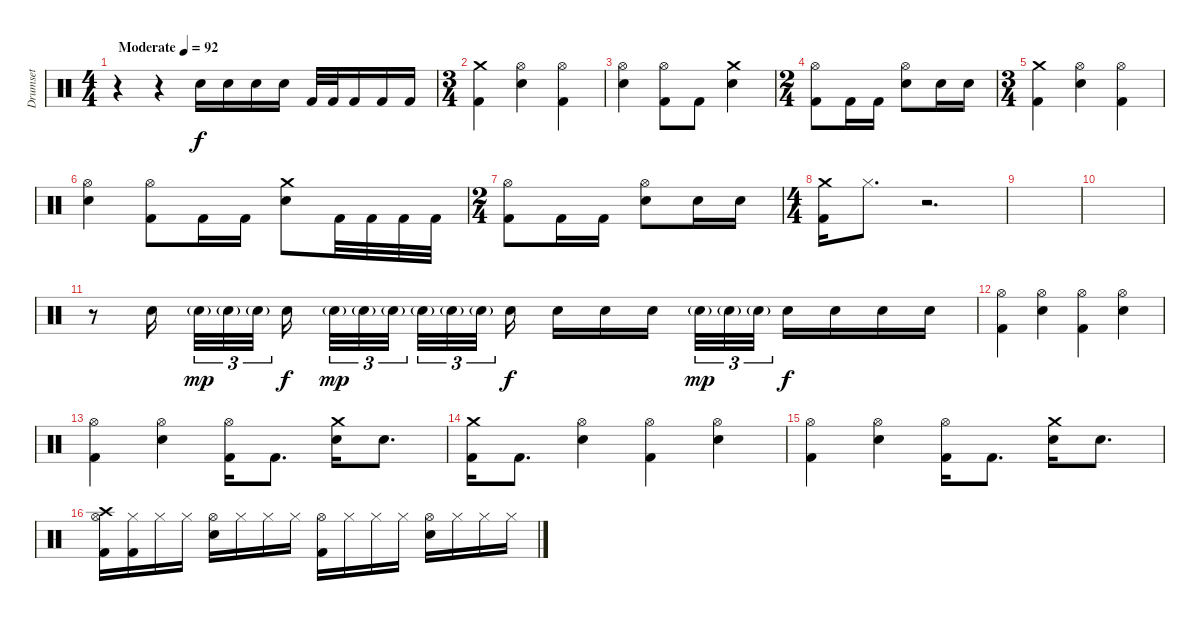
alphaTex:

\track ("Drumset" "Drumset") {instrument percussion}
\staff {score}
\articulation defaults
\ts (4 4)
\tempo (92 "Moderate")
\clef neutral
\ks c
r.4{dy f} r.4 "Electric Snare (hit)".16 "Electric Snare (hit)".16 "Electric Snare (hit)".16 "Electric Snare (hit)".16 "Kick (hit) 2".32 "Kick (hit) 2".32 "Kick (hit) 2".16 "Kick (hit) 2".16 "Kick (hit) 2".16 |
\ts (3 4)
("Crash medium (hit)" "Kick (hit) 2").4 ("Hi-Hat (open)" "Electric Snare (hit)").4 ("Hi-Hat (open)" "Kick (hit) 2").4 |
("Hi-Hat (open)" "Electric Snare (hit)").4 ("Hi-Hat (open)" "Kick (hit) 2").8 "Kick (hit) 2".8 ("Crash medium (hit)" "Electric Snare (hit)").4 |
\ts (2 4)
("Hi-Hat (open)" "Kick (hit) 2").8 "Kick (hit) 2".16 "Kick (hit) 2".16 ("Hi-Hat (open)" "Electric Snare (hit)").8 "Electric Snare (hit)".16 "Electric Snare (hit)".16 |
\ts (3 4)
("Crash medium (hit)" "Kick (hit) 2").4 ("Hi-Hat (open)" "Electric Snare (hit)").4 ("Hi-Hat (open)" "Kick (hit) 2").4 |
("Hi-Hat (open)" "Electric Snare (hit)").4 ("Hi-Hat (open)" "Kick (hit) 2").8 "Kick (hit) 2".16 "Kick (hit) 2".16 ("Crash medium (hit)" "Electric Snare (hit)").8 "Kick (hit) 2".32 "Kick (hit) 2".32 "Kick (hit) 2".32 "Kick (hit) 2".32 |
\ts (2 4)
("Hi-Hat (open)" "Kick (hit) 2").8 "Kick (hit) 2".16 "Kick (hit) 2".16 ("Hi-Hat (open)" "Electric Snare (hit)").8 "Electric Snare (hit)".16 "Electric Snare (hit)".16 |
\ts (4 4)
("Crash medium (hit)" "Kick (hit) 2").16 "Hi-Hat (closed)".8{d} r.2{d} |
|
|
r.8 "Electric Snare (hit)".16{beam splitsecondary} "Electric Snare (hit)"{g}.32{tu (3 2) dy mp} "Electric Snare (hit)"{g}.32{tu (3 2)} "Electric Snare (hit)"{g}.32{tu (3 2)} "Electric Snare (hit)".16{dy f beam splitsecondary} "Electric Snare (hit)"{g}.32{tu (3 2) dy mp} "Electric Snare (hit)"{g}.32{tu (3 2)} "Electric Snare (hit)"{g}.32{tu (3 2) beam splitsecondary} "Electric Snare (hit)"{g}.32{tu (3 2)} "Electric Snare (hit)"{g}.32{tu (3 2)} "Electric Snare (hit)"{g}.32{tu (3 2) beam splitsecondary} "Electric Snare (hit)".16{dy f} "Electric Snare (hit)".16 "Electric Snare (hit)".16 "Electric Snare (hit)".16{beam splitsecondary} "Electric Snare (hit)"{g}.32{tu (3 2) dy mp} "Electric Snare (hit)"{g}.32{tu (3 2)} "Electric Snare (hit)"{g}.32{tu (3 2)} "Electric Snare (hit)".16{dy f} "Electric Snare (hit)".16 "Electric Snare (hit)".16 "Electric Snare (hit)".16 |
("Hi-Hat (open)" "Kick (hit) 2").4 ("Hi-Hat (open)" "Electric Snare (hit)").4 ("Hi-Hat (open)" "Kick (hit) 2").4 ("Hi-Hat (open)" "Electric Snare (hit)").4 |
("Hi-Hat (open)" "Kick (hit) 2").4 ("Hi-Hat (open)" "Electric Snare (hit)").4 ("Hi-Hat (open)" "Kick (hit) 2").16 "Kick (hit) 2".8{d} ("Crash medium (hit)" "Electric Snare (hit)").16 "Electric Snare (hit)".8{d} |
("Crash medium (hit)" "Kick (hit) 2").16 "Kick (hit) 2".8{d} ("Hi-Hat (open)" "Electric Snare (hit)").4 ("Hi-Hat (open)" "Kick (hit) 2").4 ("Hi-Hat (open)" "Electric Snare (hit)").4 |
("Hi-Hat (open)" "Kick (hit) 2").4 ("Hi-Hat (open)" "Electric Snare (hit)").4 ("Hi-Hat (open)" "Kick (hit) 2").16 "Kick (hit) 2".8{d} ("Crash medium (hit)" "Electric Snare (hit)").16 "Electric Snare (hit)".8{d} |
("Crash high (hit)" "Hi-Hat (open)" "Kick (hit) 2").16 ("Hi-Hat (closed)" "Kick (hit) 2").16 "Hi-Hat (closed)".16 "Hi-Hat (closed)".16 ("Hi-Hat (open)" "Electric Snare (hit)").16 "Hi-Hat (closed)".16 "Hi-Hat (closed)".16 "Hi-Hat (closed)".16 ("Hi-Hat (open)" "Kick (hit) 2").16 "Hi-Hat (closed)".16 "Hi-Hat (closed)".16 "Hi-Hat (closed)".16 ("Hi-Hat (open)" "Electric Snare (hit)").16 "Hi-Hat (closed)".16 "Hi-Hat (closed)".16 "Hi-Hat (closed)".16
